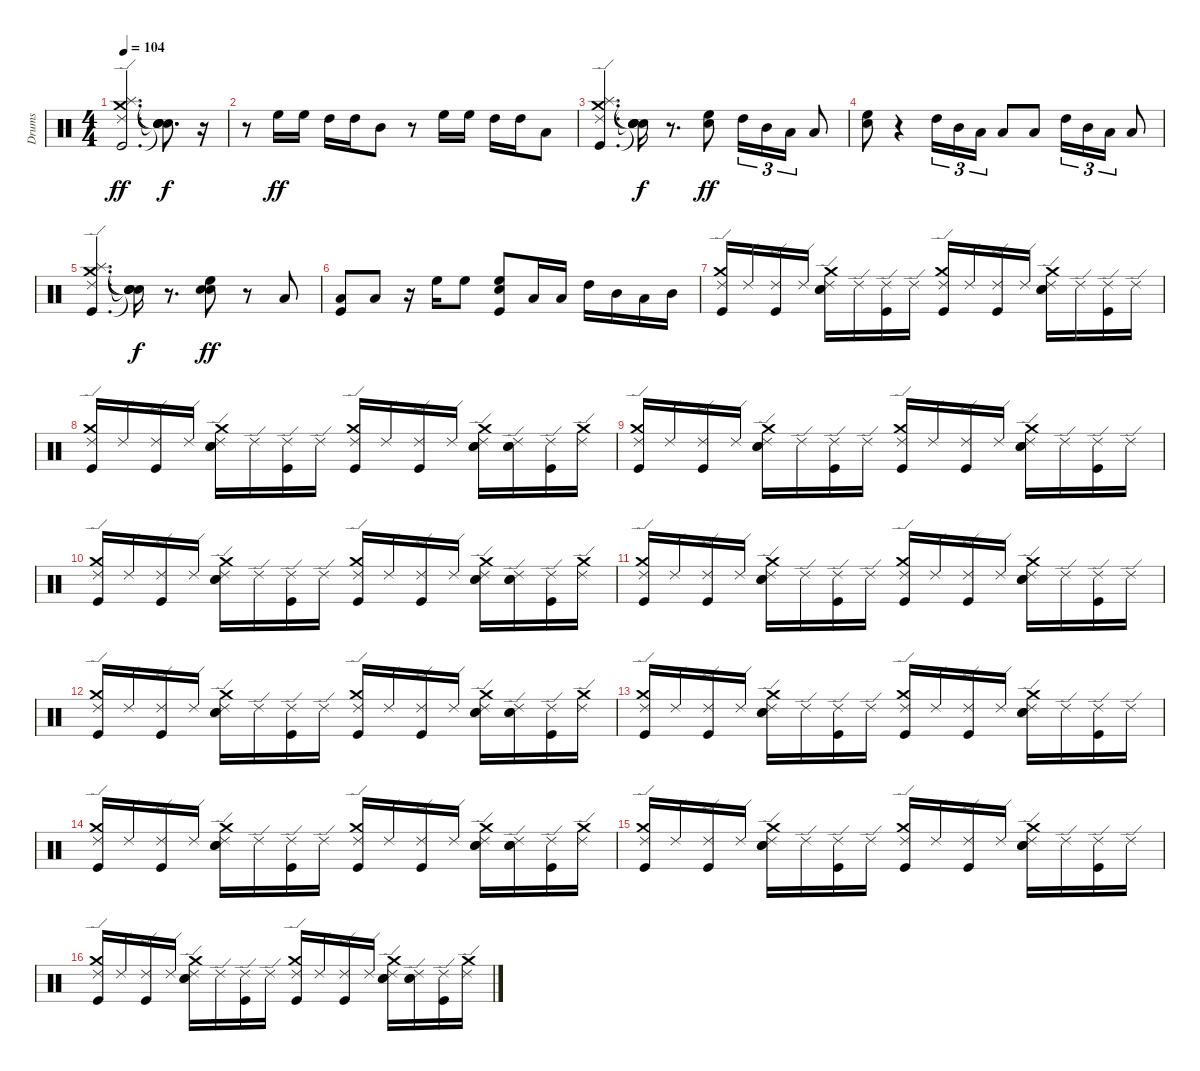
\track ("Drums" "Drums") {instrument percussion}
\staff {score}
\articulation defaults
\ts (4 4)
\tempo 104
\clef neutral
\ks c
("Kick (hit)" "Splash (hit)" "Crash medium (hit)" "Ride (edge) 2").2{d dy ff} ("Snare (hit)"{t} "Snare (hit)"{t} "Snare (hit)"{t} "Snare (hit)"{t}).8{d dy f} r.16 |
r.8 "High Floor Tom (hit)".16{dy ff} "High Floor Tom (hit)".16 "High Tom (hit)".16 "High Tom (hit)".16 "Mid Tom (hit)".8 r.8 "High Floor Tom (hit)".16 "High Floor Tom (hit)".16 "High Tom (hit)".16 "High Tom (hit)".16 "Low Tom (hit)".8 |
("Kick (hit)" "Splash (hit)" "Crash medium (hit)" "Ride (edge) 2").4{d} ("Snare (hit)"{t} "Snare (hit)"{t} "Snare (hit)"{t} "Snare (hit)"{t}).16{dy f} r.8{d} ("Snare (hit) 2" "High Floor Tom (hit)").8{dy ff} "High Tom (hit)".16{tu (3 2)} "Mid Tom (hit)".16{tu (3 2)} "Low Tom (hit)".16{tu (3 2)} "Low Tom (hit)".8 |
("Snare (hit) 2" "High Floor Tom (hit)").8 r.4 "High Tom (hit)".16{tu (3 2)} "Mid Tom (hit)".16{tu (3 2)} "Low Tom (hit)".16{tu (3 2)} "Low Tom (hit)".8 "Low Tom (hit)".8 "High Tom (hit)".16{tu (3 2)} "Mid Tom (hit)".16{tu (3 2)} "Low Tom (hit)".16{tu (3 2)} "Low Tom (hit)".8 |
("Kick (hit)" "Splash (hit)" "Crash medium (hit)" "Ride (edge) 2").4{d} ("Snare (hit)"{t} "Snare (hit)"{t} "Snare (hit)"{t} "Snare (hit)"{t}).16{dy f} r.8{d} ("Snare (hit) 2" "Electric Snare (hit)" "High Floor Tom (hit)").8{dy ff} r.8 "Low Tom (hit)".8 |
("Kick (hit)" "Low Tom (hit)").8 "Low Tom (hit)".8 r.16 "High Floor Tom (hit)".16 "High Floor Tom (hit)".8 ("Kick (hit)" "Electric Snare (hit)" "High Floor Tom (hit)").8 "Low Tom (hit)".16 "Low Tom (hit)".16 "High Tom (hit)".16 "Mid Tom (hit)".16 "Low Tom (hit)".16 "Mid Tom (hit)".16 |
("Kick (hit)" "Crash medium (hit)" "Ride (edge) 2").16 "Ride (edge) 2".16 ("Kick (hit)" "Ride (edge) 2").16 "Ride (edge) 2".16 ("Snare (hit) 2" "Electric Snare (hit)" "Crash medium (hit)" "Ride (edge) 2").16 "Ride (edge) 2".16 ("Kick (hit)" "Ride (edge) 2").16 "Ride (edge) 2".16 ("Kick (hit)" "Crash medium (hit)" "Ride (edge) 2").16 "Ride (edge) 2".16 ("Kick (hit)" "Ride (edge) 2").16 "Ride (edge) 2".16 ("Snare (hit) 2" "Electric Snare (hit)" "Crash medium (hit)" "Ride (edge) 2").16 "Ride (edge) 2".16 ("Kick (hit)" "Ride (edge) 2").16 "Ride (edge) 2".16 |
("Kick (hit)" "Crash medium (hit)" "Ride (edge) 2").16 "Ride (edge) 2".16 ("Kick (hit)" "Ride (edge) 2").16 "Ride (edge) 2".16 ("Snare (hit) 2" "Electric Snare (hit)" "Crash medium (hit)" "Ride (edge) 2").16 "Ride (edge) 2".16 ("Kick (hit)" "Ride (edge) 2").16 "Ride (edge) 2".16 ("Kick (hit)" "Crash medium (hit)" "Ride (edge) 2").16 "Ride (edge) 2".16 ("Kick (hit)" "Ride (edge) 2").16 "Ride (edge) 2".16 ("Snare (hit) 2" "Electric Snare (hit)" "Crash medium (hit)" "Ride (edge) 2").16 ("Snare (hit) 2" "Electric Snare (hit)" "Ride (edge) 2").16 ("Kick (hit)" "Ride (edge) 2").16 ("Crash medium (hit)" "Ride (edge) 2").16 |
("Kick (hit)" "Crash medium (hit)" "Ride (edge) 2").16 "Ride (edge) 2".16 ("Kick (hit)" "Ride (edge) 2").16 "Ride (edge) 2".16 ("Snare (hit) 2" "Electric Snare (hit)" "Crash medium (hit)" "Ride (edge) 2").16 "Ride (edge) 2".16 ("Kick (hit)" "Ride (edge) 2").16 "Ride (edge) 2".16 ("Kick (hit)" "Crash medium (hit)" "Ride (edge) 2").16 "Ride (edge) 2".16 ("Kick (hit)" "Ride (edge) 2").16 "Ride (edge) 2".16 ("Snare (hit) 2" "Electric Snare (hit)" "Crash medium (hit)" "Ride (edge) 2").16 "Ride (edge) 2".16 ("Kick (hit)" "Ride (edge) 2").16 "Ride (edge) 2".16 |
("Kick (hit)" "Crash medium (hit)" "Ride (edge) 2").16 "Ride (edge) 2".16 ("Kick (hit)" "Ride (edge) 2").16 "Ride (edge) 2".16 ("Snare (hit) 2" "Electric Snare (hit)" "Crash medium (hit)" "Ride (edge) 2").16 "Ride (edge) 2".16 ("Kick (hit)" "Ride (edge) 2").16 "Ride (edge) 2".16 ("Kick (hit)" "Crash medium (hit)" "Ride (edge) 2").16 "Ride (edge) 2".16 ("Kick (hit)" "Ride (edge) 2").16 "Ride (edge) 2".16 ("Snare (hit) 2" "Electric Snare (hit)" "Crash medium (hit)" "Ride (edge) 2").16 ("Snare (hit) 2" "Electric Snare (hit)" "Ride (edge) 2").16 ("Kick (hit)" "Ride (edge) 2").16 ("Crash medium (hit)" "Ride (edge) 2").16 |
("Kick (hit)" "Crash medium (hit)" "Ride (edge) 2").16 "Ride (edge) 2".16 ("Kick (hit)" "Ride (edge) 2").16 "Ride (edge) 2".16 ("Snare (hit) 2" "Electric Snare (hit)" "Crash medium (hit)" "Ride (edge) 2").16 "Ride (edge) 2".16 ("Kick (hit)" "Ride (edge) 2").16 "Ride (edge) 2".16 ("Kick (hit)" "Crash medium (hit)" "Ride (edge) 2").16 "Ride (edge) 2".16 ("Kick (hit)" "Ride (edge) 2").16 "Ride (edge) 2".16 ("Snare (hit) 2" "Electric Snare (hit)" "Crash medium (hit)" "Ride (edge) 2").16 "Ride (edge) 2".16 ("Kick (hit)" "Ride (edge) 2").16 "Ride (edge) 2".16 |
("Kick (hit)" "Crash medium (hit)" "Ride (edge) 2").16 "Ride (edge) 2".16 ("Kick (hit)" "Ride (edge) 2").16 "Ride (edge) 2".16 ("Snare (hit) 2" "Electric Snare (hit)" "Crash medium (hit)" "Ride (edge) 2").16 "Ride (edge) 2".16 ("Kick (hit)" "Ride (edge) 2").16 "Ride (edge) 2".16 ("Kick (hit)" "Crash medium (hit)" "Ride (edge) 2").16 "Ride (edge) 2".16 ("Kick (hit)" "Ride (edge) 2").16 "Ride (edge) 2".16 ("Snare (hit) 2" "Electric Snare (hit)" "Crash medium (hit)" "Ride (edge) 2").16 ("Snare (hit) 2" "Electric Snare (hit)" "Ride (edge) 2").16 ("Kick (hit)" "Ride (edge) 2").16 ("Crash medium (hit)" "Ride (edge) 2").16 |
("Kick (hit)" "Crash medium (hit)" "Ride (edge) 2").16 "Ride (edge) 2".16 ("Kick (hit)" "Ride (edge) 2").16 "Ride (edge) 2".16 ("Snare (hit) 2" "Electric Snare (hit)" "Crash medium (hit)" "Ride (edge) 2").16 "Ride (edge) 2".16 ("Kick (hit)" "Ride (edge) 2").16 "Ride (edge) 2".16 ("Kick (hit)" "Crash medium (hit)" "Ride (edge) 2").16 "Ride (edge) 2".16 ("Kick (hit)" "Ride (edge) 2").16 "Ride (edge) 2".16 ("Snare (hit) 2" "Electric Snare (hit)" "Crash medium (hit)" "Ride (edge) 2").16 "Ride (edge) 2".16 ("Kick (hit)" "Ride (edge) 2").16 "Ride (edge) 2".16 |
("Kick (hit)" "Crash medium (hit)" "Ride (edge) 2").16 "Ride (edge) 2".16 ("Kick (hit)" "Ride (edge) 2").16 "Ride (edge) 2".16 ("Snare (hit) 2" "Electric Snare (hit)" "Crash medium (hit)" "Ride (edge) 2").16 "Ride (edge) 2".16 ("Kick (hit)" "Ride (edge) 2").16 "Ride (edge) 2".16 ("Kick (hit)" "Crash medium (hit)" "Ride (edge) 2").16 "Ride (edge) 2".16 ("Kick (hit)" "Ride (edge) 2").16 "Ride (edge) 2".16 ("Snare (hit) 2" "Electric Snare (hit)" "Crash medium (hit)" "Ride (edge) 2").16 ("Snare (hit) 2" "Electric Snare (hit)" "Ride (edge) 2").16 ("Kick (hit)" "Ride (edge) 2").16 ("Crash medium (hit)" "Ride (edge) 2").16 |
("Kick (hit)" "Crash medium (hit)" "Ride (edge) 2").16 "Ride (edge) 2".16 ("Kick (hit)" "Ride (edge) 2").16 "Ride (edge) 2".16 ("Snare (hit) 2" "Electric Snare (hit)" "Crash medium (hit)" "Ride (edge) 2").16 "Ride (edge) 2".16 ("Kick (hit)" "Ride (edge) 2").16 "Ride (edge) 2".16 ("Kick (hit)" "Crash medium (hit)" "Ride (edge) 2").16 "Ride (edge) 2".16 ("Kick (hit)" "Ride (edge) 2").16 "Ride (edge) 2".16 ("Snare (hit) 2" "Electric Snare (hit)" "Crash medium (hit)" "Ride (edge) 2").16 "Ride (edge) 2".16 ("Kick (hit)" "Ride (edge) 2").16 "Ride (edge) 2".16 |
("Kick (hit)" "Crash medium (hit)" "Ride (edge) 2").16 "Ride (edge) 2".16 ("Kick (hit)" "Ride (edge) 2").16 "Ride (edge) 2".16 ("Snare (hit) 2" "Electric Snare (hit)" "Crash medium (hit)" "Ride (edge) 2").16 "Ride (edge) 2".16 ("Kick (hit)" "Ride (edge) 2").16 "Ride (edge) 2".16 ("Kick (hit)" "Crash medium (hit)" "Ride (edge) 2").16 "Ride (edge) 2".16 ("Kick (hit)" "Ride (edge) 2").16 "Ride (edge) 2".16 ("Snare (hit) 2" "Electric Snare (hit)" "Crash medium (hit)" "Ride (edge) 2").16 ("Snare (hit) 2" "Electric Snare (hit)" "Ride (edge) 2").16 ("Kick (hit)" "Ride (edge) 2").16 ("Crash medium (hit)" "Ride (edge) 2").16
